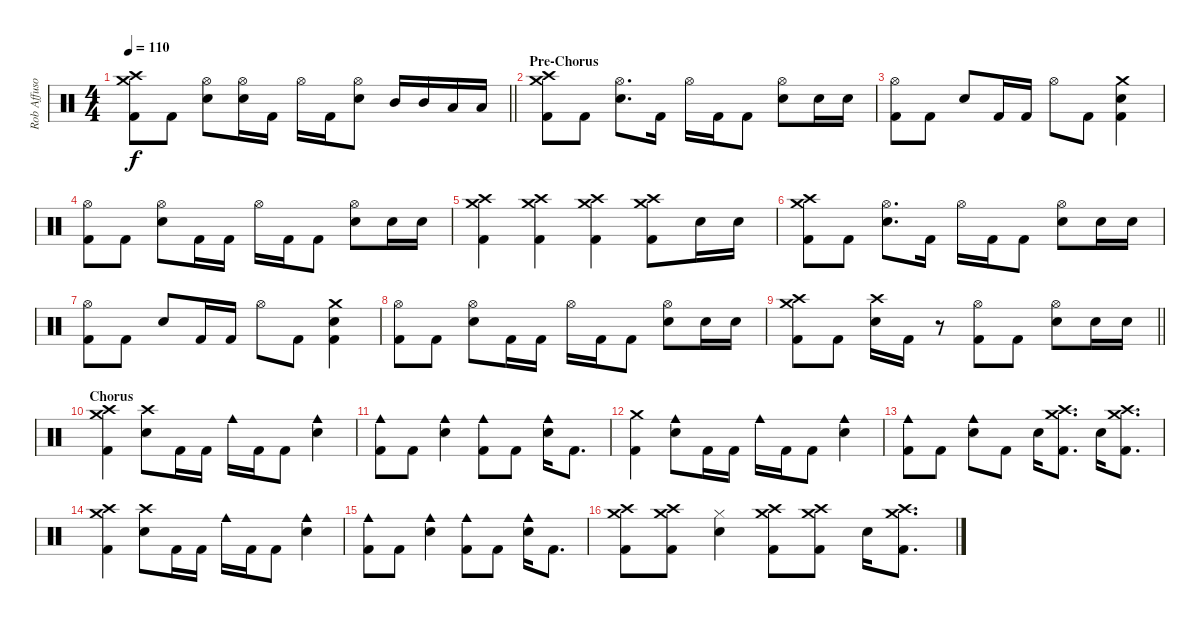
\track ("Rob Affuso - Drums" "Rob Affuso") {instrument percussion}
\staff {score}
\articulation defaults
\ts (4 4)
\tempo 110
\clef neutral
\barLineRight lightlight
\ks c
("Crash medium (hit)" "Crash high (hit)" "Kick (hit) 2").8{dy f} "Kick (hit) 2".8 ("Hi-Hat (open)" "Snare (hit) 2").8 ("Hi-Hat (open)" "Snare (hit) 2").16 "Kick (hit) 2".16 "Hi-Hat (open)".16 "Kick (hit) 2".16 ("Hi-Hat (open)" "Snare (hit) 2").8 "Mid Tom (hit)".16 "Mid Tom (hit)".16 "Low Tom (hit)".16 "Low Tom (hit)".16 |
\section ("" "Pre-Chorus")
("Crash medium (hit)" "Crash high (hit)" "Kick (hit) 2").8 "Kick (hit) 2".8 ("Hi-Hat (open)" "Snare (hit) 2").8{d} "Kick (hit) 2".16 "Hi-Hat (open)".16 "Kick (hit) 2".16 "Kick (hit) 2".8 ("Hi-Hat (open)" "Snare (hit) 2").8 "Snare (hit) 2".16 "Snare (hit) 2".16 |
("Hi-Hat (open)" "Kick (hit) 2").8 "Kick (hit) 2".8 "Snare (hit) 2".8 "Kick (hit) 2".16 "Kick (hit) 2".16 "Hi-Hat (open)".8 "Kick (hit) 2".8 ("Crash medium (hit)" "Snare (hit) 2" "Kick (hit) 2").4 |
("Hi-Hat (open)" "Kick (hit) 2").8 "Kick (hit) 2".8 ("Hi-Hat (open)" "Snare (hit) 2").8 "Kick (hit) 2".16 "Kick (hit) 2".16 "Hi-Hat (open)".16 "Kick (hit) 2".16 "Kick (hit) 2".8 ("Hi-Hat (open)" "Snare (hit) 2").8 "Snare (hit) 2".16 "Snare (hit) 2".16 |
("Crash medium (hit)" "Crash high (hit)" "Kick (hit) 2").4 ("Crash high (hit)" "Crash medium (hit)" "Kick (hit) 2").4 ("Crash medium (hit)" "Crash high (hit)" "Kick (hit) 2").4 ("Crash high (hit)" "Crash medium (hit)" "Kick (hit) 2").8 "Snare (hit) 2".16 "Snare (hit) 2".16 |
("Crash medium (hit)" "Crash high (hit)" "Kick (hit) 2").8 "Kick (hit) 2".8 ("Hi-Hat (open)" "Snare (hit) 2").8{d} "Kick (hit) 2".16 "Hi-Hat (open)".16 "Kick (hit) 2".16 "Kick (hit) 2".8 ("Hi-Hat (open)" "Snare (hit) 2").8 "Snare (hit) 2".16 "Snare (hit) 2".16 |
("Hi-Hat (open)" "Kick (hit) 2").8 "Kick (hit) 2".8 "Snare (hit) 2".8 "Kick (hit) 2".16 "Kick (hit) 2".16 "Hi-Hat (open)".8 "Kick (hit) 2".8 ("Crash medium (hit)" "Snare (hit) 2" "Kick (hit) 2").4 |
("Hi-Hat (open)" "Kick (hit) 2").8 "Kick (hit) 2".8 ("Hi-Hat (open)" "Snare (hit) 2").8 "Kick (hit) 2".16 "Kick (hit) 2".16 "Hi-Hat (open)".16 "Kick (hit) 2".16 "Kick (hit) 2".8 ("Hi-Hat (open)" "Snare (hit) 2").8 "Snare (hit) 2".16 "Snare (hit) 2".16 |
\barLineRight lightlight
("Crash medium (hit)" "Crash high (hit)" "Kick (hit) 2").8 "Kick (hit) 2".8 ("Crash high (hit)" "Snare (hit) 2").16 "Kick (hit) 2".16 r.8 ("Hi-Hat (open)" "Kick (hit) 2").8 "Kick (hit) 2".8 ("Hi-Hat (open)" "Snare (hit) 2").8 "Snare (hit) 2".16 "Snare (hit) 2".16 |
\section ("" "Chorus")
("Crash medium (hit)" "Crash high (hit)" "Kick (hit) 2").4 ("Crash high (hit)" "Snare (hit) 2").8 "Kick (hit) 2".16 "Kick (hit) 2".16 "Cowbell medium (hit)".16 "Kick (hit) 2".16 "Kick (hit) 2".8 ("Cowbell medium (hit)" "Snare (hit) 2").4 |
("Cowbell medium (hit)" "Kick (hit) 2").8 "Kick (hit) 2".8 ("Cowbell medium (hit)" "Snare (hit) 2").4 ("Cowbell medium (hit)" "Kick (hit) 2").8 "Kick (hit) 2".8 ("Cowbell medium (hit)" "Snare (hit) 2").16 "Kick (hit) 2".8{d} |
("Crash medium (hit)" "Kick (hit) 2").4 ("Cowbell medium (hit)" "Snare (hit) 2").8 "Kick (hit) 2".16 "Kick (hit) 2".16 "Cowbell medium (hit)".16 "Kick (hit) 2".16 "Kick (hit) 2".8 ("Cowbell medium (hit)" "Snare (hit) 2").4 |
("Cowbell medium (hit)" "Kick (hit) 2").8 "Kick (hit) 2".8 ("Cowbell medium (hit)" "Snare (hit) 2").8 "Kick (hit) 2".8 "Snare (hit) 2".16 ("Crash medium (hit)" "Crash high (hit)" "Kick (hit) 2").8{d} "Snare (hit) 2".16 ("Crash high (hit)" "Crash medium (hit)" "Kick (hit) 2").8{d} |
("Crash medium (hit)" "Crash high (hit)" "Kick (hit) 2").4 ("Crash high (hit)" "Snare (hit) 2").8 "Kick (hit) 2".16 "Kick (hit) 2".16 "Cowbell medium (hit)".16 "Kick (hit) 2".16 "Kick (hit) 2".8 ("Cowbell medium (hit)" "Snare (hit) 2").4 |
("Cowbell medium (hit)" "Kick (hit) 2").8 "Kick (hit) 2".8 ("Cowbell medium (hit)" "Snare (hit) 2").4 ("Cowbell medium (hit)" "Kick (hit) 2").8 "Kick (hit) 2".8 ("Cowbell medium (hit)" "Snare (hit) 2").16 "Kick (hit) 2".8{d} |
("Crash medium (hit)" "Crash high (hit)" "Kick (hit) 2").8 ("Crash high (hit)" "Crash medium (hit)" "Kick (hit) 2").8 ("Hi-Hat (closed)" "Snare (hit) 2").4 ("Crash medium (hit)" "Crash high (hit)" "Kick (hit) 2").8 ("Crash high (hit)" "Crash medium (hit)" "Kick (hit) 2").8 "Snare (hit) 2".16 ("Crash medium (hit)" "Crash high (hit)" "Kick (hit) 2").8{d}
